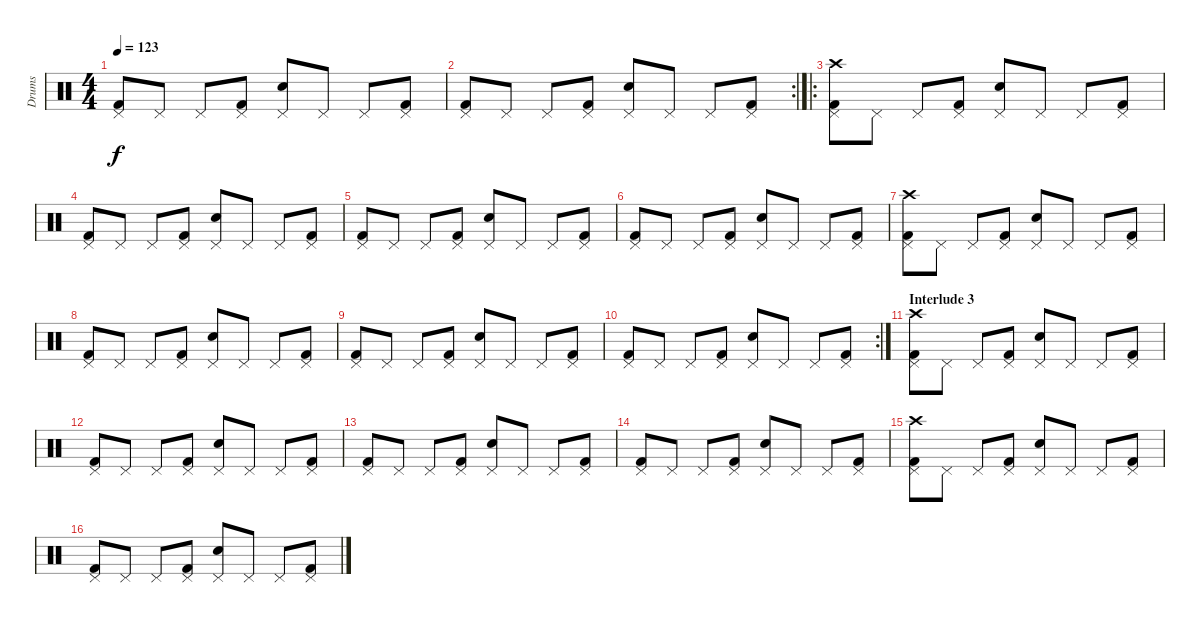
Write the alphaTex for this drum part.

\track ("Drums" "Drums") {instrument percussion}
\staff {score}
\articulation defaults
\ts (4 4)
\tempo 123
\clef neutral
\ks c
("Kick (hit) 2" "Pedal Hi-Hat (hit)").8{dy f} "Pedal Hi-Hat (hit)".8 "Pedal Hi-Hat (hit)".8 ("Kick (hit) 2" "Pedal Hi-Hat (hit)").8 ("Snare (hit) 2" "Pedal Hi-Hat (hit)").8 "Pedal Hi-Hat (hit)".8 "Pedal Hi-Hat (hit)".8 ("Kick (hit) 2" "Pedal Hi-Hat (hit)").8 |
\rc 2
("Kick (hit) 2" "Pedal Hi-Hat (hit)").8 "Pedal Hi-Hat (hit)".8 "Pedal Hi-Hat (hit)".8 ("Kick (hit) 2" "Pedal Hi-Hat (hit)").8 ("Snare (hit) 2" "Pedal Hi-Hat (hit)").8 "Pedal Hi-Hat (hit)".8 "Pedal Hi-Hat (hit)".8 ("Kick (hit) 2" "Pedal Hi-Hat (hit)").8 |
\ro
("Kick (hit) 2" "Pedal Hi-Hat (hit)" "Crash high (hit)").8 "Pedal Hi-Hat (hit)".8 "Pedal Hi-Hat (hit)".8 ("Kick (hit) 2" "Pedal Hi-Hat (hit)").8 ("Snare (hit) 2" "Pedal Hi-Hat (hit)").8 "Pedal Hi-Hat (hit)".8 "Pedal Hi-Hat (hit)".8 ("Kick (hit) 2" "Pedal Hi-Hat (hit)").8 |
("Kick (hit) 2" "Pedal Hi-Hat (hit)").8 "Pedal Hi-Hat (hit)".8 "Pedal Hi-Hat (hit)".8 ("Kick (hit) 2" "Pedal Hi-Hat (hit)").8 ("Snare (hit) 2" "Pedal Hi-Hat (hit)").8 "Pedal Hi-Hat (hit)".8 "Pedal Hi-Hat (hit)".8 ("Kick (hit) 2" "Pedal Hi-Hat (hit)").8 |
("Kick (hit) 2" "Pedal Hi-Hat (hit)").8 "Pedal Hi-Hat (hit)".8 "Pedal Hi-Hat (hit)".8 ("Kick (hit) 2" "Pedal Hi-Hat (hit)").8 ("Snare (hit) 2" "Pedal Hi-Hat (hit)").8 "Pedal Hi-Hat (hit)".8 "Pedal Hi-Hat (hit)".8 ("Kick (hit) 2" "Pedal Hi-Hat (hit)").8 |
("Kick (hit) 2" "Pedal Hi-Hat (hit)").8 "Pedal Hi-Hat (hit)".8 "Pedal Hi-Hat (hit)".8 ("Kick (hit) 2" "Pedal Hi-Hat (hit)").8 ("Snare (hit) 2" "Pedal Hi-Hat (hit)").8 "Pedal Hi-Hat (hit)".8 "Pedal Hi-Hat (hit)".8 ("Kick (hit) 2" "Pedal Hi-Hat (hit)").8 |
("Kick (hit) 2" "Pedal Hi-Hat (hit)" "Crash high (hit)").8 "Pedal Hi-Hat (hit)".8 "Pedal Hi-Hat (hit)".8 ("Kick (hit) 2" "Pedal Hi-Hat (hit)").8 ("Snare (hit) 2" "Pedal Hi-Hat (hit)").8 "Pedal Hi-Hat (hit)".8 "Pedal Hi-Hat (hit)".8 ("Kick (hit) 2" "Pedal Hi-Hat (hit)").8 |
("Kick (hit) 2" "Pedal Hi-Hat (hit)").8 "Pedal Hi-Hat (hit)".8 "Pedal Hi-Hat (hit)".8 ("Kick (hit) 2" "Pedal Hi-Hat (hit)").8 ("Snare (hit) 2" "Pedal Hi-Hat (hit)").8 "Pedal Hi-Hat (hit)".8 "Pedal Hi-Hat (hit)".8 ("Kick (hit) 2" "Pedal Hi-Hat (hit)").8 |
("Kick (hit) 2" "Pedal Hi-Hat (hit)").8 "Pedal Hi-Hat (hit)".8 "Pedal Hi-Hat (hit)".8 ("Kick (hit) 2" "Pedal Hi-Hat (hit)").8 ("Snare (hit) 2" "Pedal Hi-Hat (hit)").8 "Pedal Hi-Hat (hit)".8 "Pedal Hi-Hat (hit)".8 ("Kick (hit) 2" "Pedal Hi-Hat (hit)").8 |
\rc 2
("Kick (hit) 2" "Pedal Hi-Hat (hit)").8 "Pedal Hi-Hat (hit)".8 "Pedal Hi-Hat (hit)".8 ("Kick (hit) 2" "Pedal Hi-Hat (hit)").8 ("Snare (hit) 2" "Pedal Hi-Hat (hit)").8 "Pedal Hi-Hat (hit)".8 "Pedal Hi-Hat (hit)".8 ("Kick (hit) 2" "Pedal Hi-Hat (hit)").8 |
\section ("" "Interlude 3")
("Kick (hit) 2" "Pedal Hi-Hat (hit)" "Crash high (hit)").8 "Pedal Hi-Hat (hit)".8 "Pedal Hi-Hat (hit)".8 ("Kick (hit) 2" "Pedal Hi-Hat (hit)").8 ("Snare (hit) 2" "Pedal Hi-Hat (hit)").8 "Pedal Hi-Hat (hit)".8 "Pedal Hi-Hat (hit)".8 ("Kick (hit) 2" "Pedal Hi-Hat (hit)").8 |
("Kick (hit) 2" "Pedal Hi-Hat (hit)").8 "Pedal Hi-Hat (hit)".8 "Pedal Hi-Hat (hit)".8 ("Kick (hit) 2" "Pedal Hi-Hat (hit)").8 ("Snare (hit) 2" "Pedal Hi-Hat (hit)").8 "Pedal Hi-Hat (hit)".8 "Pedal Hi-Hat (hit)".8 ("Kick (hit) 2" "Pedal Hi-Hat (hit)").8 |
("Kick (hit) 2" "Pedal Hi-Hat (hit)").8 "Pedal Hi-Hat (hit)".8 "Pedal Hi-Hat (hit)".8 ("Kick (hit) 2" "Pedal Hi-Hat (hit)").8 ("Snare (hit) 2" "Pedal Hi-Hat (hit)").8 "Pedal Hi-Hat (hit)".8 "Pedal Hi-Hat (hit)".8 ("Kick (hit) 2" "Pedal Hi-Hat (hit)").8 |
("Kick (hit) 2" "Pedal Hi-Hat (hit)").8 "Pedal Hi-Hat (hit)".8 "Pedal Hi-Hat (hit)".8 ("Kick (hit) 2" "Pedal Hi-Hat (hit)").8 ("Snare (hit) 2" "Pedal Hi-Hat (hit)").8 "Pedal Hi-Hat (hit)".8 "Pedal Hi-Hat (hit)".8 ("Kick (hit) 2" "Pedal Hi-Hat (hit)").8 |
("Kick (hit) 2" "Pedal Hi-Hat (hit)" "Crash high (hit)").8 "Pedal Hi-Hat (hit)".8 "Pedal Hi-Hat (hit)".8 ("Kick (hit) 2" "Pedal Hi-Hat (hit)").8 ("Snare (hit) 2" "Pedal Hi-Hat (hit)").8 "Pedal Hi-Hat (hit)".8 "Pedal Hi-Hat (hit)".8 ("Kick (hit) 2" "Pedal Hi-Hat (hit)").8 |
("Kick (hit) 2" "Pedal Hi-Hat (hit)").8 "Pedal Hi-Hat (hit)".8 "Pedal Hi-Hat (hit)".8 ("Kick (hit) 2" "Pedal Hi-Hat (hit)").8 ("Snare (hit) 2" "Pedal Hi-Hat (hit)").8 "Pedal Hi-Hat (hit)".8 "Pedal Hi-Hat (hit)".8 ("Kick (hit) 2" "Pedal Hi-Hat (hit)").8
